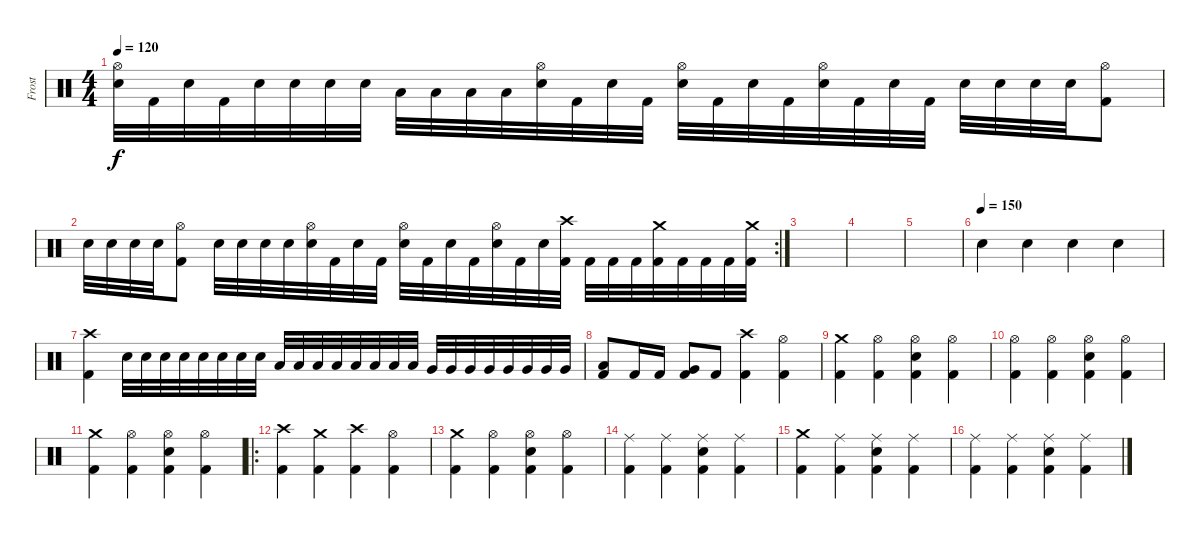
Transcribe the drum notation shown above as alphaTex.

\track ("Frost" "Frost") {instrument percussion}
\staff {score}
\articulation defaults
\ts (4 4)
\tempo 120
\clef neutral
\ks c
("Hi-Hat (open)" "Snare (hit) 2").32{dy f} "Kick (hit) 2".32 "Snare (hit) 2".32 "Kick (hit) 2".32 "Snare (hit) 2".32 "Snare (hit) 2".32 "Snare (hit) 2".32 "Snare (hit) 2".32 "Low Tom (hit)".32 "Low Tom (hit)".32 "Low Tom (hit)".32 "Low Tom (hit)".32 ("Hi-Hat (open)" "Snare (hit) 2").32 "Kick (hit) 2".32 "Snare (hit) 2".32 "Kick (hit) 2".32 ("Hi-Hat (open)" "Snare (hit) 2").32 "Kick (hit) 2".32 "Snare (hit) 2".32 "Kick (hit) 2".32 ("Hi-Hat (open)" "Snare (hit) 2").32 "Kick (hit) 2".32 "Snare (hit) 2".32 "Kick (hit) 2".32 "Snare (hit) 2".32 "Snare (hit) 2".32 "Snare (hit) 2".32 "Snare (hit) 2".32 ("Hi-Hat (open)" "Kick (hit) 2").8 |
\rc 2 "Snare (hit) 2".32 "Snare (hit) 2".32 "Snare (hit) 2".32 "Snare (hit) 2".32
("Hi-Hat (open)" "Kick (hit) 2").8 "Snare (hit) 2".32 "Snare (hit) 2".32 "Snare (hit) 2".32 "Snare (hit) 2".32 ("Hi-Hat (open)" "Snare (hit) 2").32 "Kick (hit) 2".32 "Snare (hit) 2".32 "Kick (hit) 2".32 ("Hi-Hat (open)" "Snare (hit) 2").32 "Kick (hit) 2".32 "Snare (hit) 2".32 "Kick (hit) 2".32 ("Hi-Hat (open)" "Snare (hit) 2").32 "Kick (hit) 2".32 "Snare (hit) 2".32 ("Crash high (hit)" "Kick (hit) 2").32 "Kick (hit) 2".32 "Kick (hit) 2".32 "Kick (hit) 2".32 ("Crash medium (hit)" "Kick (hit) 2").32 "Kick (hit) 2".32 "Kick (hit) 2".32 "Kick (hit) 2".32 ("Crash medium (hit)" "Kick (hit) 2").32 |
|
|
|
\tempo (150)
"Snare (hit)".4 "Snare (hit)".4 "Snare (hit)".4 "Snare (hit)".4 |
("Crash high (hit)" "Kick (hit) 2").4 "Snare (hit) 2".32 "Snare (hit) 2".32 "Snare (hit) 2".32 "Snare (hit) 2".32 "Snare (hit) 2".32 "Snare (hit) 2".32 "Snare (hit) 2".32 "Snare (hit) 2".32 "Low Tom (hit)".32 "Low Tom (hit)".32 "Low Tom (hit)".32 "Low Tom (hit)".32 "Low Tom (hit)".32 "Low Tom (hit)".32 "Low Tom (hit)".32 "Low Tom (hit)".32 "Very Low Tom (hit)".32 "Very Low Tom (hit)".32 "Very Low Tom (hit)".32 "Very Low Tom (hit)".32 "Very Low Tom (hit)".32 "Very Low Tom (hit)".32 "Very Low Tom (hit)".32 "Very Low Tom (hit)".32 |
("Low Tom (hit)" "Kick (hit) 2").8 "Kick (hit) 2".16 "Kick (hit) 2".16 ("Very Low Tom (hit)" "Kick (hit) 2").8 "Kick (hit) 2".8 ("Crash high (hit)" "Kick (hit) 2").4 ("Hi-Hat (open)" "Kick (hit) 2").4 |
("Crash medium (hit)" "Kick (hit) 2").4 ("Hi-Hat (open)" "Kick (hit) 2").4 ("Hi-Hat (open)" "Snare (hit) 2" "Kick (hit) 2").4 ("Hi-Hat (open)" "Kick (hit) 2").4 |
("Hi-Hat (open)" "Kick (hit) 2").4 ("Hi-Hat (open)" "Kick (hit) 2").4 ("Hi-Hat (open)" "Snare (hit) 2" "Kick (hit) 2").4 ("Hi-Hat (open)" "Kick (hit) 2").4 |
("Crash medium (hit)" "Kick (hit) 2").4 ("Hi-Hat (open)" "Kick (hit) 2").4 ("Hi-Hat (open)" "Snare (hit) 2" "Kick (hit) 2").4 ("Hi-Hat (open)" "Kick (hit) 2").4 |
\ro
("Crash high (hit)" "Kick (hit) 2").4 ("Crash medium (hit)" "Kick (hit) 2").4 ("Crash high (hit)" "Kick (hit) 2").4 ("Hi-Hat (open)" "Kick (hit) 2").4 |
("Crash medium (hit)" "Kick (hit) 2").4 ("Hi-Hat (open)" "Kick (hit) 2").4 ("Hi-Hat (open)" "Snare (hit) 2" "Kick (hit) 2").4 ("Hi-Hat (open)" "Kick (hit) 2").4 |
("Ride (middle)" "Kick (hit) 2").4 ("Ride (middle)" "Kick (hit) 2").4 ("Ride (middle)" "Snare (hit) 2" "Kick (hit) 2").4 ("Ride (middle)" "Kick (hit) 2").4 |
("Crash medium (hit)" "Kick (hit) 2").4 ("Ride (middle)" "Kick (hit) 2").4 ("Ride (middle)" "Snare (hit) 2" "Kick (hit) 2").4 ("Ride (middle)" "Kick (hit) 2").4 |
("Ride (middle)" "Kick (hit) 2").4 ("Ride (middle)" "Kick (hit) 2").4 ("Ride (middle)" "Snare (hit) 2" "Kick (hit) 2").4 ("Ride (middle)" "Kick (hit) 2").4
